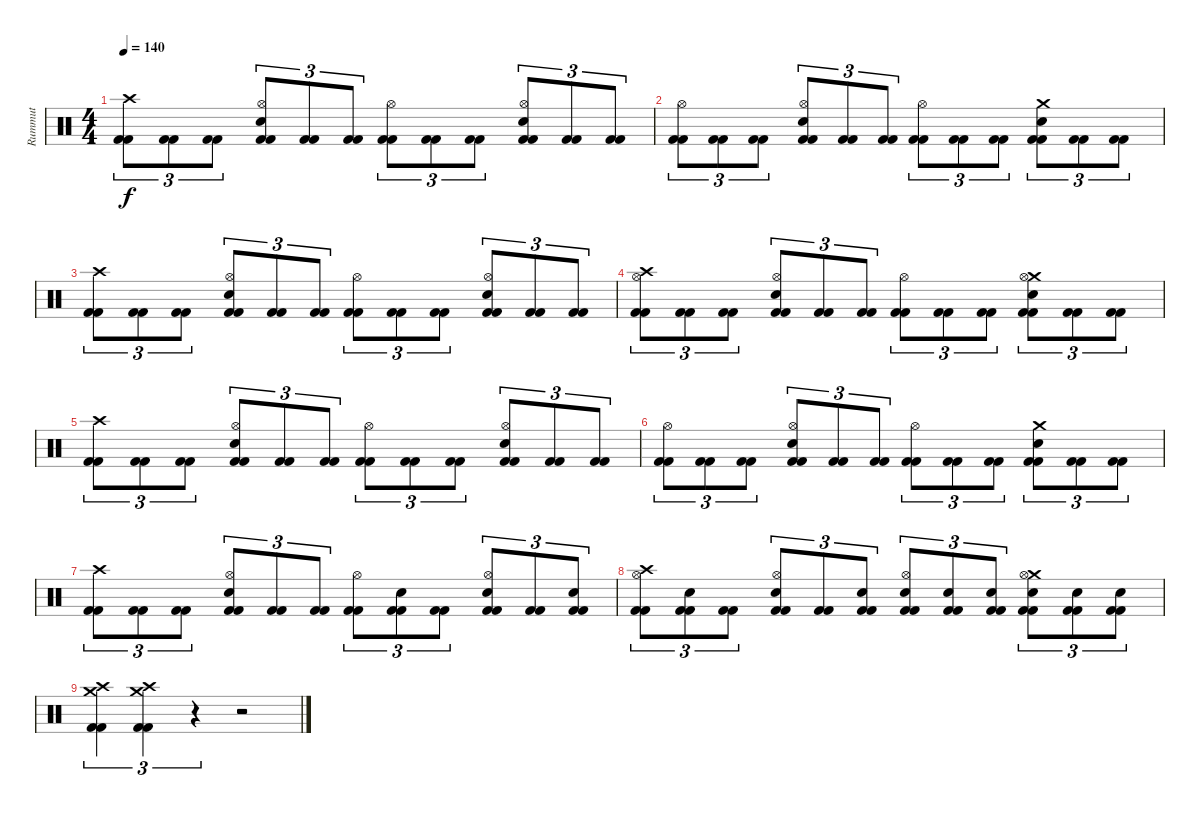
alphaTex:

\track ("Rummut" "Rummut") {instrument percussion}
\staff {score}
\articulation defaults
\ts (4 4)
\tempo 140
\clef neutral
\ks c
("Crash high (hit)" "Kick (hit) 2" "Kick (hit) 2").8{tu (3 2) dy f} ("Kick (hit) 2" "Kick (hit) 2").8{tu (3 2)} ("Kick (hit) 2" "Kick (hit) 2").8{tu (3 2)} ("Hi-Hat (open)" "Electric Snare (hit)" "Kick (hit) 2" "Kick (hit) 2").8{tu (3 2)} ("Kick (hit) 2" "Kick (hit) 2").8{tu (3 2)} ("Kick (hit) 2" "Kick (hit) 2").8{tu (3 2)} ("Hi-Hat (open)" "Kick (hit) 2" "Kick (hit) 2").8{tu (3 2)} ("Kick (hit) 2" "Kick (hit) 2").8{tu (3 2)} ("Kick (hit) 2" "Kick (hit) 2").8{tu (3 2)} ("Hi-Hat (open)" "Electric Snare (hit)" "Kick (hit) 2" "Kick (hit) 2").8{tu (3 2)} ("Kick (hit) 2" "Kick (hit) 2").8{tu (3 2)} ("Kick (hit) 2" "Kick (hit) 2").8{tu (3 2)} |
("Hi-Hat (open)" "Kick (hit) 2" "Kick (hit) 2").8{tu (3 2)} ("Kick (hit) 2" "Kick (hit) 2").8{tu (3 2)} ("Kick (hit) 2" "Kick (hit) 2").8{tu (3 2)} ("Hi-Hat (open)" "Electric Snare (hit)" "Kick (hit) 2" "Kick (hit) 2").8{tu (3 2)} ("Kick (hit) 2" "Kick (hit) 2").8{tu (3 2)} ("Kick (hit) 2" "Kick (hit) 2").8{tu (3 2)} ("Hi-Hat (open)" "Kick (hit) 2" "Kick (hit) 2").8{tu (3 2)} ("Kick (hit) 2" "Kick (hit) 2").8{tu (3 2)} ("Kick (hit) 2" "Kick (hit) 2").8{tu (3 2)} ("Crash medium (hit)" "Electric Snare (hit)" "Kick (hit) 2" "Kick (hit) 2").8{tu (3 2)} ("Kick (hit) 2" "Kick (hit) 2").8{tu (3 2)} ("Kick (hit) 2" "Kick (hit) 2").8{tu (3 2)} |
("Crash high (hit)" "Kick (hit) 2" "Kick (hit) 2").8{tu (3 2)} ("Kick (hit) 2" "Kick (hit) 2").8{tu (3 2)} ("Kick (hit) 2" "Kick (hit) 2").8{tu (3 2)} ("Hi-Hat (open)" "Electric Snare (hit)" "Kick (hit) 2" "Kick (hit) 2").8{tu (3 2)} ("Kick (hit) 2" "Kick (hit) 2").8{tu (3 2)} ("Kick (hit) 2" "Kick (hit) 2").8{tu (3 2)} ("Hi-Hat (open)" "Kick (hit) 2" "Kick (hit) 2").8{tu (3 2)} ("Kick (hit) 2" "Kick (hit) 2").8{tu (3 2)} ("Kick (hit) 2" "Kick (hit) 2").8{tu (3 2)} ("Hi-Hat (open)" "Electric Snare (hit)" "Kick (hit) 2" "Kick (hit) 2").8{tu (3 2)} ("Kick (hit) 2" "Kick (hit) 2").8{tu (3 2)} ("Kick (hit) 2" "Kick (hit) 2").8{tu (3 2)} |
("Crash high (hit)" "Hi-Hat (open)" "Kick (hit) 2" "Kick (hit) 2").8{tu (3 2)} ("Kick (hit) 2" "Kick (hit) 2").8{tu (3 2)} ("Kick (hit) 2" "Kick (hit) 2").8{tu (3 2)} ("Hi-Hat (open)" "Electric Snare (hit)" "Kick (hit) 2" "Kick (hit) 2").8{tu (3 2)} ("Kick (hit) 2" "Kick (hit) 2").8{tu (3 2)} ("Kick (hit) 2" "Kick (hit) 2").8{tu (3 2)} ("Hi-Hat (open)" "Kick (hit) 2" "Kick (hit) 2").8{tu (3 2)} ("Kick (hit) 2" "Kick (hit) 2").8{tu (3 2)} ("Kick (hit) 2" "Kick (hit) 2").8{tu (3 2)} ("Crash medium (hit)" "Hi-Hat (open)" "Electric Snare (hit)" "Kick (hit) 2" "Kick (hit) 2").8{tu (3 2)} ("Kick (hit) 2" "Kick (hit) 2").8{tu (3 2)} ("Kick (hit) 2" "Kick (hit) 2").8{tu (3 2)} |
("Crash high (hit)" "Kick (hit) 2" "Kick (hit) 2").8{tu (3 2)} ("Kick (hit) 2" "Kick (hit) 2").8{tu (3 2)} ("Kick (hit) 2" "Kick (hit) 2").8{tu (3 2)} ("Hi-Hat (open)" "Electric Snare (hit)" "Kick (hit) 2" "Kick (hit) 2").8{tu (3 2)} ("Kick (hit) 2" "Kick (hit) 2").8{tu (3 2)} ("Kick (hit) 2" "Kick (hit) 2").8{tu (3 2)} ("Hi-Hat (open)" "Kick (hit) 2" "Kick (hit) 2").8{tu (3 2)} ("Kick (hit) 2" "Kick (hit) 2").8{tu (3 2)} ("Kick (hit) 2" "Kick (hit) 2").8{tu (3 2)} ("Hi-Hat (open)" "Electric Snare (hit)" "Kick (hit) 2" "Kick (hit) 2").8{tu (3 2)} ("Kick (hit) 2" "Kick (hit) 2").8{tu (3 2)} ("Kick (hit) 2" "Kick (hit) 2").8{tu (3 2)} |
("Hi-Hat (open)" "Kick (hit) 2" "Kick (hit) 2").8{tu (3 2)} ("Kick (hit) 2" "Kick (hit) 2").8{tu (3 2)} ("Kick (hit) 2" "Kick (hit) 2").8{tu (3 2)} ("Hi-Hat (open)" "Electric Snare (hit)" "Kick (hit) 2" "Kick (hit) 2").8{tu (3 2)} ("Kick (hit) 2" "Kick (hit) 2").8{tu (3 2)} ("Kick (hit) 2" "Kick (hit) 2").8{tu (3 2)} ("Hi-Hat (open)" "Kick (hit) 2" "Kick (hit) 2").8{tu (3 2)} ("Kick (hit) 2" "Kick (hit) 2").8{tu (3 2)} ("Kick (hit) 2" "Kick (hit) 2").8{tu (3 2)} ("Crash medium (hit)" "Electric Snare (hit)" "Kick (hit) 2" "Kick (hit) 2").8{tu (3 2)} ("Kick (hit) 2" "Kick (hit) 2").8{tu (3 2)} ("Kick (hit) 2" "Kick (hit) 2").8{tu (3 2)} |
("Crash high (hit)" "Kick (hit) 2" "Kick (hit) 2").8{tu (3 2)} ("Kick (hit) 2" "Kick (hit) 2").8{tu (3 2)} ("Kick (hit) 2" "Kick (hit) 2").8{tu (3 2)} ("Hi-Hat (open)" "Electric Snare (hit)" "Kick (hit) 2" "Kick (hit) 2").8{tu (3 2)} ("Kick (hit) 2" "Kick (hit) 2").8{tu (3 2)} ("Kick (hit) 2" "Kick (hit) 2").8{tu (3 2)} ("Hi-Hat (open)" "Kick (hit) 2" "Kick (hit) 2").8{tu (3 2)} ("Electric Snare (hit)" "Kick (hit) 2" "Kick (hit) 2").8{tu (3 2)} ("Kick (hit) 2" "Kick (hit) 2").8{tu (3 2)} ("Hi-Hat (open)" "Electric Snare (hit)" "Kick (hit) 2" "Kick (hit) 2").8{tu (3 2)} ("Kick (hit) 2" "Kick (hit) 2").8{tu (3 2)} ("Electric Snare (hit)" "Kick (hit) 2" "Kick (hit) 2").8{tu (3 2)} |
("Crash high (hit)" "Hi-Hat (open)" "Kick (hit) 2" "Kick (hit) 2").8{tu (3 2)} ("Electric Snare (hit)" "Kick (hit) 2" "Kick (hit) 2").8{tu (3 2)} ("Kick (hit) 2" "Kick (hit) 2").8{tu (3 2)} ("Hi-Hat (open)" "Electric Snare (hit)" "Kick (hit) 2" "Kick (hit) 2").8{tu (3 2)} ("Kick (hit) 2" "Kick (hit) 2").8{tu (3 2)} ("Electric Snare (hit)" "Kick (hit) 2" "Kick (hit) 2").8{tu (3 2)} ("Hi-Hat (open)" "Electric Snare (hit)" "Kick (hit) 2" "Kick (hit) 2").8{tu (3 2)} ("Electric Snare (hit)" "Kick (hit) 2" "Kick (hit) 2").8{tu (3 2)} ("Electric Snare (hit)" "Kick (hit) 2" "Kick (hit) 2").8{tu (3 2)} ("Crash medium (hit)" "Hi-Hat (open)" "Electric Snare (hit)" "Kick (hit) 2" "Kick (hit) 2").8{tu (3 2)} ("Electric Snare (hit)" "Kick (hit) 2" "Kick (hit) 2").8{tu (3 2)} ("Electric Snare (hit)" "Kick (hit) 2" "Kick (hit) 2").8{tu (3 2)} |
("Crash medium (hit)" "Crash high (hit)" "Kick (hit) 2" "Kick (hit) 2").4{tu (3 2)} ("Crash medium (hit)" "Crash high (hit)" "Kick (hit) 2" "Kick (hit) 2").4{tu (3 2)} r.4{tu (3 2)} r.2
